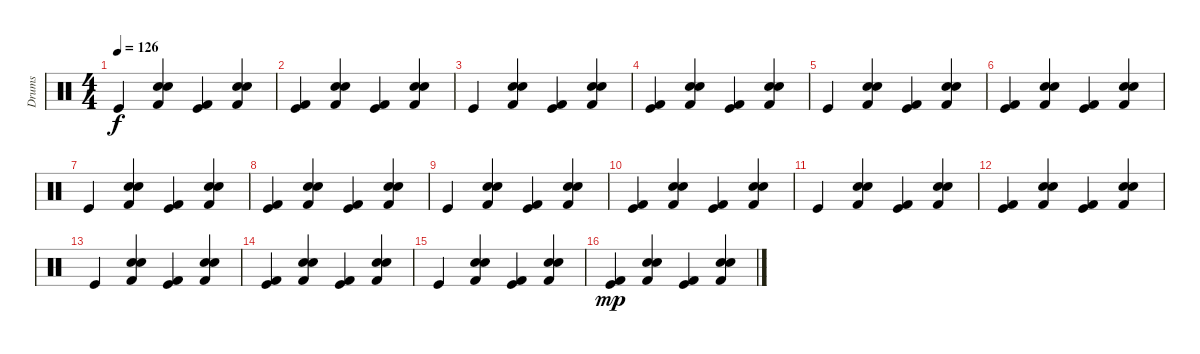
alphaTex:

\track ("Drums" "Drums") {instrument percussion}
\staff {score}
\articulation defaults
\ts (4 4)
\tempo 126
\clef neutral
\ks c "Kick (hit)".4{dy f}
("Snare (hit) 2" "Hand Clap (hit)" "Kick (hit) 2").4 ("Kick (hit)" "Kick (hit) 2").4 ("Snare (hit) 2" "Hand Clap (hit)" "Kick (hit) 2").4 |
("Kick (hit)" "Kick (hit) 2").4 ("Snare (hit) 2" "Hand Clap (hit)" "Kick (hit) 2").4 ("Kick (hit)" "Kick (hit) 2").4 ("Snare (hit) 2" "Hand Clap (hit)" "Kick (hit) 2").4 |
"Kick (hit)".4 ("Snare (hit) 2" "Hand Clap (hit)" "Kick (hit) 2").4 ("Kick (hit)" "Kick (hit) 2").4 ("Snare (hit) 2" "Hand Clap (hit)" "Kick (hit) 2").4 |
("Kick (hit)" "Kick (hit) 2").4 ("Snare (hit) 2" "Hand Clap (hit)" "Kick (hit) 2").4 ("Kick (hit)" "Kick (hit) 2").4 ("Snare (hit) 2" "Hand Clap (hit)" "Kick (hit) 2").4 |
"Kick (hit)".4 ("Snare (hit) 2" "Hand Clap (hit)" "Kick (hit) 2").4 ("Kick (hit)" "Kick (hit) 2").4 ("Snare (hit) 2" "Hand Clap (hit)" "Kick (hit) 2").4 |
("Kick (hit)" "Kick (hit) 2").4 ("Snare (hit) 2" "Hand Clap (hit)" "Kick (hit) 2").4 ("Kick (hit)" "Kick (hit) 2").4 ("Snare (hit) 2" "Hand Clap (hit)" "Kick (hit) 2").4 |
"Kick (hit)".4 ("Snare (hit) 2" "Hand Clap (hit)" "Kick (hit) 2").4 ("Kick (hit)" "Kick (hit) 2").4 ("Snare (hit) 2" "Hand Clap (hit)" "Kick (hit) 2").4 |
("Kick (hit)" "Kick (hit) 2").4 ("Snare (hit) 2" "Hand Clap (hit)" "Kick (hit) 2").4 ("Kick (hit)" "Kick (hit) 2").4 ("Snare (hit) 2" "Hand Clap (hit)" "Kick (hit) 2").4 |
"Kick (hit)".4 ("Snare (hit) 2" "Hand Clap (hit)" "Kick (hit) 2").4 ("Kick (hit)" "Kick (hit) 2").4 ("Snare (hit) 2" "Hand Clap (hit)" "Kick (hit) 2").4 |
("Kick (hit)" "Kick (hit) 2").4 ("Snare (hit) 2" "Hand Clap (hit)" "Kick (hit) 2").4 ("Kick (hit)" "Kick (hit) 2").4 ("Snare (hit) 2" "Hand Clap (hit)" "Kick (hit) 2").4 |
"Kick (hit)".4 ("Snare (hit) 2" "Hand Clap (hit)" "Kick (hit) 2").4 ("Kick (hit)" "Kick (hit) 2").4 ("Snare (hit) 2" "Hand Clap (hit)" "Kick (hit) 2").4 |
("Kick (hit)" "Kick (hit) 2").4 ("Snare (hit) 2" "Hand Clap (hit)" "Kick (hit) 2").4 ("Kick (hit)" "Kick (hit) 2").4 ("Snare (hit) 2" "Hand Clap (hit)" "Kick (hit) 2").4 |
"Kick (hit)".4 ("Snare (hit) 2" "Hand Clap (hit)" "Kick (hit) 2").4 ("Kick (hit)" "Kick (hit) 2").4 ("Snare (hit) 2" "Hand Clap (hit)" "Kick (hit) 2").4 |
("Kick (hit)" "Kick (hit) 2").4 ("Snare (hit) 2" "Hand Clap (hit)" "Kick (hit) 2").4 ("Kick (hit)" "Kick (hit) 2").4 ("Snare (hit) 2" "Hand Clap (hit)" "Kick (hit) 2").4 |
"Kick (hit)".4 ("Snare (hit) 2" "Hand Clap (hit)" "Kick (hit) 2").4 ("Kick (hit)" "Kick (hit) 2").4 ("Snare (hit) 2" "Hand Clap (hit)" "Kick (hit) 2").4 |
("Kick (hit)" "Kick (hit) 2").4{dy mp} ("Snare (hit) 2" "Hand Clap (hit)" "Kick (hit) 2").4 ("Kick (hit)" "Kick (hit) 2").4 ("Snare (hit) 2" "Hand Clap (hit)" "Kick (hit) 2").4
